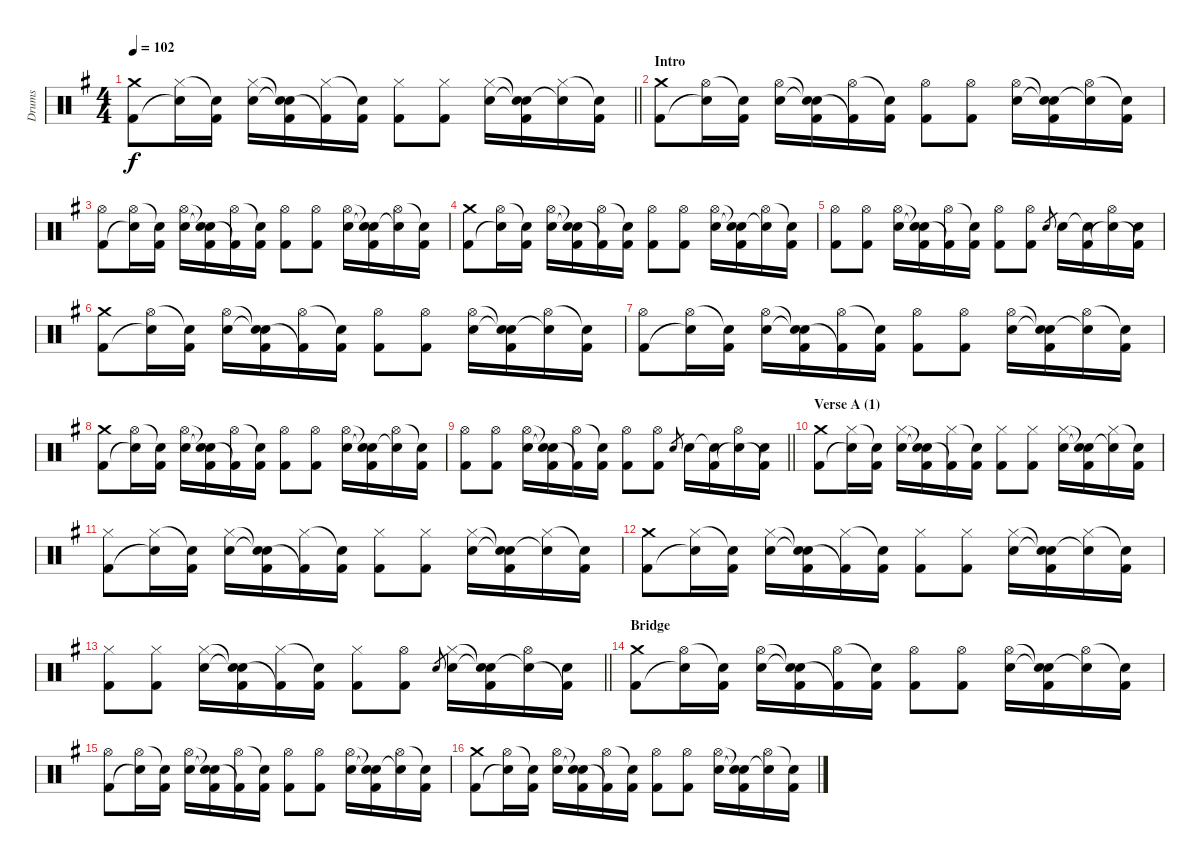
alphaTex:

\track ("Drums" "Drums") {instrument percussion}
\staff {score}
\articulation defaults
\ts (4 4)
\tempo 102
\clef neutral
\barLineRight lightlight
\ks eminor
("Crash medium (hit)" "Kick (hit) 2").8{dy f} ("Hi-Hat (closed)" "Snare (hit)"{t}).16 ("Snare (hit)"{t} "Kick (hit) 2").16 ("Hi-Hat (closed)" "Electric Snare (hit)").16 ("Snare (hit)"{t} "Snare (hit)"{t} "Kick (hit) 2").16 ("Hi-Hat (closed)" "Kick (hit) 2"{t}).16 ("Snare (hit)"{t} "Kick (hit) 2").16 ("Hi-Hat (closed)" "Kick (hit) 2").8 ("Hi-Hat (closed)" "Kick (hit) 2").8 ("Hi-Hat (closed)" "Electric Snare (hit)").16 ("Snare (hit)"{t} "Snare (hit)"{t} "Kick (hit) 2").16 ("Hi-Hat (closed)" "Snare (hit)"{t}).16 ("Snare (hit)"{t} "Kick (hit) 2").16 |
\section ("" "Intro")
("Crash medium (hit)" "Kick (hit) 2").8 ("Hi-Hat (open)" "Snare (hit)"{t}).16 ("Snare (hit)"{t} "Kick (hit) 2").16 ("Hi-Hat (open)" "Electric Snare (hit)").16 ("Snare (hit)"{t} "Snare (hit)"{t} "Kick (hit) 2").16 ("Hi-Hat (open)" "Kick (hit) 2"{t}).16 ("Snare (hit)"{t} "Kick (hit) 2").16 ("Hi-Hat (open)" "Kick (hit) 2").8 ("Hi-Hat (open)" "Kick (hit) 2").8 ("Hi-Hat (open)" "Electric Snare (hit)").16 ("Snare (hit)"{t} "Snare (hit)"{t} "Kick (hit) 2").16 ("Hi-Hat (open)" "Snare (hit)"{t}).16 ("Snare (hit)"{t} "Kick (hit) 2").16 |
("Hi-Hat (open)" "Kick (hit) 2").8 ("Hi-Hat (open)" "Snare (hit)"{t}).16 ("Snare (hit)"{t} "Kick (hit) 2").16 ("Hi-Hat (open)" "Electric Snare (hit)").16 ("Snare (hit)"{t} "Snare (hit)"{t} "Kick (hit) 2").16 ("Hi-Hat (open)" "Kick (hit) 2"{t}).16 ("Snare (hit)"{t} "Kick (hit) 2").16 ("Hi-Hat (open)" "Kick (hit) 2").8 ("Hi-Hat (open)" "Kick (hit) 2").8 ("Hi-Hat (open)" "Electric Snare (hit)").16 ("Snare (hit)"{t} "Snare (hit)"{t} "Kick (hit) 2").16 ("Hi-Hat (open)" "Snare (hit)"{t}).16 ("Snare (hit)"{t} "Kick (hit) 2").16 |
("Crash medium (hit)" "Kick (hit) 2").8 ("Hi-Hat (open)" "Snare (hit)"{t}).16 ("Snare (hit)"{t} "Kick (hit) 2").16 ("Hi-Hat (open)" "Electric Snare (hit)").16 ("Snare (hit)"{t} "Snare (hit)"{t} "Kick (hit) 2").16 ("Hi-Hat (open)" "Kick (hit) 2"{t}).16 ("Snare (hit)"{t} "Kick (hit) 2").16 ("Hi-Hat (open)" "Kick (hit) 2").8 ("Hi-Hat (open)" "Kick (hit) 2").8 ("Hi-Hat (open)" "Electric Snare (hit)").16 ("Snare (hit)"{t} "Snare (hit)"{t} "Kick (hit) 2").16 ("Hi-Hat (open)" "Snare (hit)"{t}).16 ("Snare (hit)"{t} "Kick (hit) 2").16 |
("Hi-Hat (open)" "Kick (hit) 2").8 ("Hi-Hat (open)" "Kick (hit) 2").8 ("Hi-Hat (open)" "Electric Snare (hit)").16 ("Snare (hit)"{t} "Snare (hit)"{t} "Kick (hit) 2").16 ("Hi-Hat (open)" "Kick (hit) 2"{t}).16 ("Snare (hit)"{t} "Kick (hit) 2").16 ("Hi-Hat (open)" "Kick (hit) 2").8 ("Hi-Hat (open)" "Kick (hit) 2").8 "Electric Snare (hit)".8{gr} "Electric Snare (hit)".16 ("Snare (hit)"{t} "Kick (hit) 2").16 ("Hi-Hat (open)" "Snare (hit)"{t}).16 ("Electric Snare (hit)" "Kick (hit) 2"{t}).16 |
("Crash medium (hit)" "Kick (hit) 2").8 ("Hi-Hat (open)" "Snare (hit)"{t}).16 ("Snare (hit)"{t} "Kick (hit) 2").16 ("Hi-Hat (open)" "Electric Snare (hit)").16 ("Snare (hit)"{t} "Snare (hit)"{t} "Kick (hit) 2").16 ("Hi-Hat (open)" "Kick (hit) 2"{t}).16 ("Snare (hit)"{t} "Kick (hit) 2").16 ("Hi-Hat (open)" "Kick (hit) 2").8 ("Hi-Hat (open)" "Kick (hit) 2").8 ("Hi-Hat (open)" "Electric Snare (hit)").16 ("Snare (hit)"{t} "Snare (hit)"{t} "Kick (hit) 2").16 ("Hi-Hat (open)" "Snare (hit)"{t}).16 ("Snare (hit)"{t} "Kick (hit) 2").16 |
("Hi-Hat (open)" "Kick (hit) 2").8 ("Hi-Hat (open)" "Snare (hit)"{t}).16 ("Snare (hit)"{t} "Kick (hit) 2").16 ("Hi-Hat (open)" "Electric Snare (hit)").16 ("Snare (hit)"{t} "Snare (hit)"{t} "Kick (hit) 2").16 ("Hi-Hat (open)" "Kick (hit) 2"{t}).16 ("Snare (hit)"{t} "Kick (hit) 2").16 ("Hi-Hat (open)" "Kick (hit) 2").8 ("Hi-Hat (open)" "Kick (hit) 2").8 ("Hi-Hat (open)" "Electric Snare (hit)").16 ("Snare (hit)"{t} "Snare (hit)"{t} "Kick (hit) 2").16 ("Hi-Hat (open)" "Snare (hit)"{t}).16 ("Snare (hit)"{t} "Kick (hit) 2").16 |
("Crash medium (hit)" "Kick (hit) 2").8 ("Hi-Hat (open)" "Snare (hit)"{t}).16 ("Snare (hit)"{t} "Kick (hit) 2").16 ("Hi-Hat (open)" "Electric Snare (hit)").16 ("Snare (hit)"{t} "Snare (hit)"{t} "Kick (hit) 2").16 ("Hi-Hat (open)" "Kick (hit) 2"{t}).16 ("Snare (hit)"{t} "Kick (hit) 2").16 ("Hi-Hat (open)" "Kick (hit) 2").8 ("Hi-Hat (open)" "Kick (hit) 2").8 ("Hi-Hat (open)" "Electric Snare (hit)").16 ("Snare (hit)"{t} "Snare (hit)"{t} "Kick (hit) 2").16 ("Hi-Hat (open)" "Snare (hit)"{t}).16 ("Snare (hit)"{t} "Kick (hit) 2").16 |
\barLineRight lightlight
("Hi-Hat (open)" "Kick (hit) 2").8 ("Hi-Hat (open)" "Kick (hit) 2").8 ("Hi-Hat (open)" "Electric Snare (hit)").16 ("Snare (hit)"{t} "Snare (hit)"{t} "Kick (hit) 2").16 ("Hi-Hat (open)" "Kick (hit) 2"{t}).16 ("Snare (hit)"{t} "Kick (hit) 2").16 ("Hi-Hat (open)" "Kick (hit) 2").8 ("Hi-Hat (open)" "Kick (hit) 2").8 "Electric Snare (hit)".8{gr} "Electric Snare (hit)".16 ("Snare (hit)"{t} "Kick (hit) 2").16 ("Hi-Hat (open)" "Snare (hit)"{t}).16 ("Electric Snare (hit)" "Kick (hit) 2"{t}).16 |
\section ("" "Verse A (1)")
("Crash medium (hit)" "Kick (hit) 2").8 ("Hi-Hat (closed)" "Snare (hit)"{t}).16 ("Snare (hit)"{t} "Kick (hit) 2").16 ("Hi-Hat (closed)" "Electric Snare (hit)").16 ("Snare (hit)"{t} "Snare (hit)"{t} "Kick (hit) 2").16 ("Hi-Hat (closed)" "Kick (hit) 2"{t}).16 ("Snare (hit)"{t} "Kick (hit) 2").16 ("Hi-Hat (closed)" "Kick (hit) 2").8 ("Hi-Hat (closed)" "Kick (hit) 2").8 ("Hi-Hat (closed)" "Electric Snare (hit)").16 ("Snare (hit)"{t} "Snare (hit)"{t} "Kick (hit) 2").16 ("Hi-Hat (closed)" "Snare (hit)"{t}).16 ("Snare (hit)"{t} "Kick (hit) 2").16 |
("Hi-Hat (closed)" "Kick (hit) 2").8 ("Hi-Hat (closed)" "Snare (hit)"{t}).16 ("Snare (hit)"{t} "Kick (hit) 2").16 ("Hi-Hat (closed)" "Electric Snare (hit)").16 ("Snare (hit)"{t} "Snare (hit)"{t} "Kick (hit) 2").16 ("Hi-Hat (closed)" "Kick (hit) 2"{t}).16 ("Snare (hit)"{t} "Kick (hit) 2").16 ("Hi-Hat (closed)" "Kick (hit) 2").8 ("Hi-Hat (closed)" "Kick (hit) 2").8 ("Hi-Hat (closed)" "Electric Snare (hit)").16 ("Snare (hit)"{t} "Snare (hit)"{t} "Kick (hit) 2").16 ("Hi-Hat (closed)" "Snare (hit)"{t}).16 ("Snare (hit)"{t} "Kick (hit) 2").16 |
("Crash medium (hit)" "Kick (hit) 2").8 ("Hi-Hat (closed)" "Snare (hit)"{t}).16 ("Snare (hit)"{t} "Kick (hit) 2").16 ("Hi-Hat (closed)" "Electric Snare (hit)").16 ("Snare (hit)"{t} "Snare (hit)"{t} "Kick (hit) 2").16 ("Hi-Hat (closed)" "Kick (hit) 2"{t}).16 ("Snare (hit)"{t} "Kick (hit) 2").16 ("Hi-Hat (closed)" "Kick (hit) 2").8 ("Hi-Hat (closed)" "Kick (hit) 2").8 ("Hi-Hat (closed)" "Electric Snare (hit)").16 ("Snare (hit)"{t} "Snare (hit)"{t} "Kick (hit) 2").16 ("Hi-Hat (closed)" "Snare (hit)"{t}).16 ("Snare (hit)"{t} "Kick (hit) 2").16 |
\barLineRight lightlight
("Hi-Hat (closed)" "Kick (hit) 2").8 ("Hi-Hat (closed)" "Kick (hit) 2").8 ("Hi-Hat (closed)" "Electric Snare (hit)").16 ("Snare (hit)"{t} "Snare (hit)"{t} "Kick (hit) 2").16 ("Hi-Hat (closed)" "Kick (hit) 2"{t}).16 ("Snare (hit)"{t} "Kick (hit) 2").16 ("Hi-Hat (closed)" "Kick (hit) 2").8 ("Hi-Hat (open)" "Kick (hit) 2").8 "Electric Snare (hit)".8{gr} ("Hi-Hat (closed)" "Electric Snare (hit)").16 ("Snare (hit)"{t} "Snare (hit)"{t} "Kick (hit) 2").16 ("Hi-Hat (open)" "Snare (hit)"{t}).16 ("Electric Snare (hit)" "Kick (hit) 2"{t}).16 |
\section ("" "Bridge")
("Crash medium (hit)" "Kick (hit) 2").8 ("Hi-Hat (open)" "Snare (hit)"{t}).16 ("Snare (hit)"{t} "Kick (hit) 2").16 ("Hi-Hat (open)" "Electric Snare (hit)").16 ("Snare (hit)"{t} "Snare (hit)"{t} "Kick (hit) 2").16 ("Hi-Hat (open)" "Kick (hit) 2"{t}).16 ("Snare (hit)"{t} "Kick (hit) 2").16 ("Hi-Hat (open)" "Kick (hit) 2").8 ("Hi-Hat (open)" "Kick (hit) 2").8 ("Hi-Hat (open)" "Electric Snare (hit)").16 ("Snare (hit)"{t} "Snare (hit)"{t} "Kick (hit) 2").16 ("Hi-Hat (open)" "Snare (hit)"{t}).16 ("Snare (hit)"{t} "Kick (hit) 2").16 |
("Hi-Hat (open)" "Kick (hit) 2").8 ("Hi-Hat (open)" "Snare (hit)"{t}).16 ("Snare (hit)"{t} "Kick (hit) 2").16 ("Hi-Hat (open)" "Electric Snare (hit)").16 ("Snare (hit)"{t} "Snare (hit)"{t} "Kick (hit) 2").16 ("Hi-Hat (open)" "Kick (hit) 2"{t}).16 ("Snare (hit)"{t} "Kick (hit) 2").16 ("Hi-Hat (open)" "Kick (hit) 2").8 ("Hi-Hat (open)" "Kick (hit) 2").8 ("Hi-Hat (open)" "Electric Snare (hit)").16 ("Snare (hit)"{t} "Snare (hit)"{t} "Kick (hit) 2").16 ("Hi-Hat (open)" "Snare (hit)"{t}).16 ("Snare (hit)"{t} "Kick (hit) 2").16 |
("Crash medium (hit)" "Kick (hit) 2").8 ("Hi-Hat (open)" "Snare (hit)"{t}).16 ("Snare (hit)"{t} "Kick (hit) 2").16 ("Hi-Hat (open)" "Electric Snare (hit)").16 ("Snare (hit)"{t} "Snare (hit)"{t} "Kick (hit) 2").16 ("Hi-Hat (open)" "Kick (hit) 2"{t}).16 ("Snare (hit)"{t} "Kick (hit) 2").16 ("Hi-Hat (open)" "Kick (hit) 2").8 ("Hi-Hat (open)" "Kick (hit) 2").8 ("Hi-Hat (open)" "Electric Snare (hit)").16 ("Snare (hit)"{t} "Snare (hit)"{t} "Kick (hit) 2").16 ("Hi-Hat (open)" "Snare (hit)"{t}).16 ("Snare (hit)"{t} "Kick (hit) 2").16
